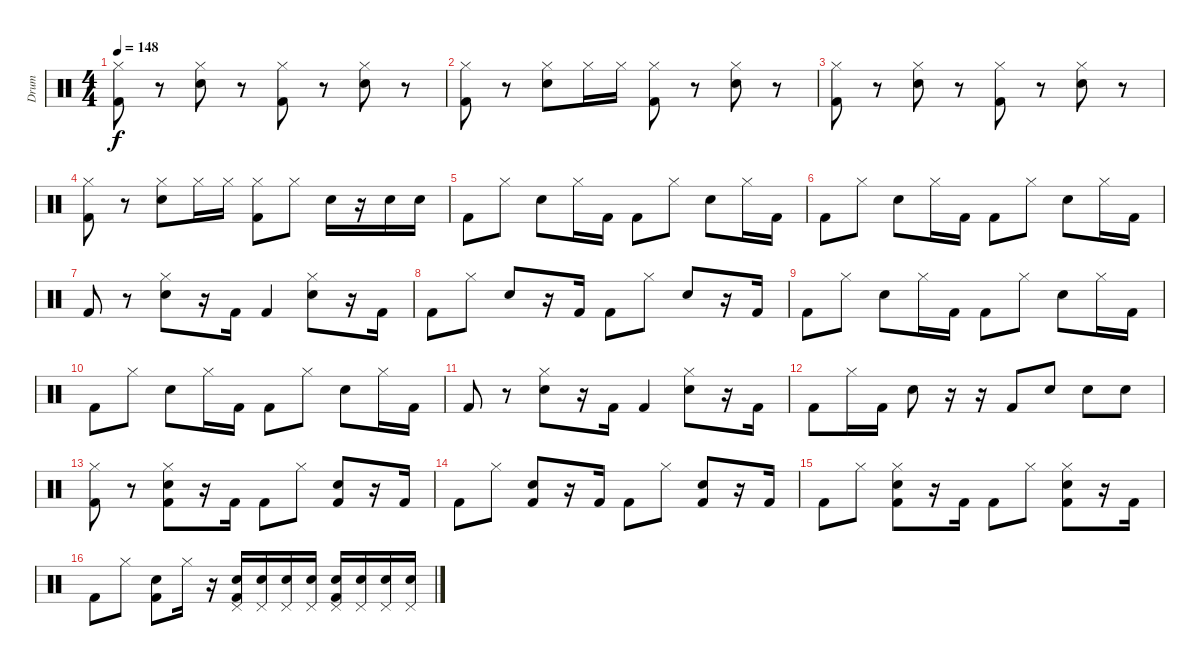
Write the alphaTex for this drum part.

\track ("Drum" "Drum") {instrument percussion}
\staff {score}
\articulation defaults
\ts (4 4)
\tempo 148
\clef neutral
\ks c
("Hi-Hat (closed)" "Kick (hit) 2").8{dy f} r.8 ("Hi-Hat (closed)" "Electric Snare (hit)").8 r.8 ("Hi-Hat (closed)" "Kick (hit) 2").8 r.8 ("Hi-Hat (closed)" "Electric Snare (hit)").8 r.8 |
("Hi-Hat (closed)" "Kick (hit) 2").8 r.8 ("Hi-Hat (closed)" "Electric Snare (hit)").8 "Hi-Hat (closed)".16 "Hi-Hat (closed)".16 ("Hi-Hat (closed)" "Kick (hit) 2").8 r.8 ("Hi-Hat (closed)" "Electric Snare (hit)").8 r.8 |
("Hi-Hat (closed)" "Kick (hit) 2").8 r.8 ("Hi-Hat (closed)" "Electric Snare (hit)").8 r.8 ("Hi-Hat (closed)" "Kick (hit) 2").8 r.8 ("Hi-Hat (closed)" "Electric Snare (hit)").8 r.8 |
("Hi-Hat (closed)" "Kick (hit) 2").8 r.8 ("Hi-Hat (closed)" "Electric Snare (hit)").8 "Hi-Hat (closed)".16 "Hi-Hat (closed)".16 ("Hi-Hat (closed)" "Kick (hit) 2").8 "Hi-Hat (closed)".8 "Electric Snare (hit)".16 r.16 "Electric Snare (hit)".16 "Electric Snare (hit)".16 |
"Kick (hit) 2".8 "Hi-Hat (closed)".8 "Electric Snare (hit)".8 "Hi-Hat (closed)".16 "Kick (hit) 2".16 "Kick (hit) 2".8 "Hi-Hat (closed)".8 "Electric Snare (hit)".8 "Hi-Hat (closed)".16 "Kick (hit) 2".16 |
"Kick (hit) 2".8 "Hi-Hat (closed)".8 "Electric Snare (hit)".8 "Hi-Hat (closed)".16 "Kick (hit) 2".16 "Kick (hit) 2".8 "Hi-Hat (closed)".8 "Electric Snare (hit)".8 "Hi-Hat (closed)".16 "Kick (hit) 2".16 |
"Kick (hit) 2".8 r.8 ("Hi-Hat (closed)" "Electric Snare (hit)").8 r.16 "Kick (hit) 2".16 "Kick (hit) 2".4 ("Hi-Hat (closed)" "Electric Snare (hit)").8 r.16 "Kick (hit) 2".16 |
"Kick (hit) 2".8 "Hi-Hat (closed)".8 "Electric Snare (hit)".8 r.16 "Kick (hit) 2".16 "Kick (hit) 2".8 "Hi-Hat (closed)".8 "Electric Snare (hit)".8 r.16 "Kick (hit) 2".16 |
"Kick (hit) 2".8 "Hi-Hat (closed)".8 "Electric Snare (hit)".8 "Hi-Hat (closed)".16 "Kick (hit) 2".16 "Kick (hit) 2".8 "Hi-Hat (closed)".8 "Electric Snare (hit)".8 "Hi-Hat (closed)".16 "Kick (hit) 2".16 |
"Kick (hit) 2".8 "Hi-Hat (closed)".8 "Electric Snare (hit)".8 "Hi-Hat (closed)".16 "Kick (hit) 2".16 "Kick (hit) 2".8 "Hi-Hat (closed)".8 "Electric Snare (hit)".8 "Hi-Hat (closed)".16 "Kick (hit) 2".16 |
"Kick (hit) 2".8 r.8 ("Hi-Hat (closed)" "Electric Snare (hit)").8 r.16 "Kick (hit) 2".16 "Kick (hit) 2".4 ("Hi-Hat (closed)" "Electric Snare (hit)").8 r.16 "Kick (hit) 2".16 |
"Kick (hit) 2".8 "Hi-Hat (closed)".16 "Kick (hit) 2".16 "Electric Snare (hit)".8 r.16 r.16 "Kick (hit) 2".8 "Electric Snare (hit)".8 "Electric Snare (hit)".8 "Electric Snare (hit)".8 |
("Hi-Hat (closed)" "Kick (hit) 2").8 r.8 ("Hi-Hat (closed)" "Electric Snare (hit)" "Kick (hit) 2").8 r.16 "Kick (hit) 2".16 "Kick (hit) 2".8 "Hi-Hat (closed)".8 ("Electric Snare (hit)" "Kick (hit) 2").8 r.16 "Kick (hit) 2".16 |
"Kick (hit) 2".8 "Hi-Hat (closed)".8 ("Electric Snare (hit)" "Kick (hit) 2").8 r.16 "Kick (hit) 2".16 "Kick (hit) 2".8 "Hi-Hat (closed)".8 ("Electric Snare (hit)" "Kick (hit) 2").8 r.16 "Kick (hit) 2".16 |
"Kick (hit) 2".8 "Hi-Hat (closed)".8 ("Hi-Hat (closed)" "Electric Snare (hit)" "Kick (hit) 2").8 r.16 "Kick (hit) 2".16 "Kick (hit) 2".8 "Hi-Hat (closed)".8 ("Hi-Hat (closed)" "Electric Snare (hit)" "Kick (hit) 2").8 r.16 "Kick (hit) 2".16 |
"Kick (hit) 2".8 "Hi-Hat (closed)".8 ("Electric Snare (hit)" "Kick (hit) 2").8 "Hi-Hat (closed)".16 r.16 ("Pedal Hi-Hat (hit)" "Electric Snare (hit)" "Kick (hit) 2").16 ("Pedal Hi-Hat (hit)" "Electric Snare (hit)").16 ("Pedal Hi-Hat (hit)" "Electric Snare (hit)").16 ("Pedal Hi-Hat (hit)" "Electric Snare (hit)").16 ("Pedal Hi-Hat (hit)" "Electric Snare (hit)" "Kick (hit) 2").16 ("Pedal Hi-Hat (hit)" "Electric Snare (hit)").16 ("Pedal Hi-Hat (hit)" "Electric Snare (hit)").16 ("Pedal Hi-Hat (hit)" "Electric Snare (hit)").16
